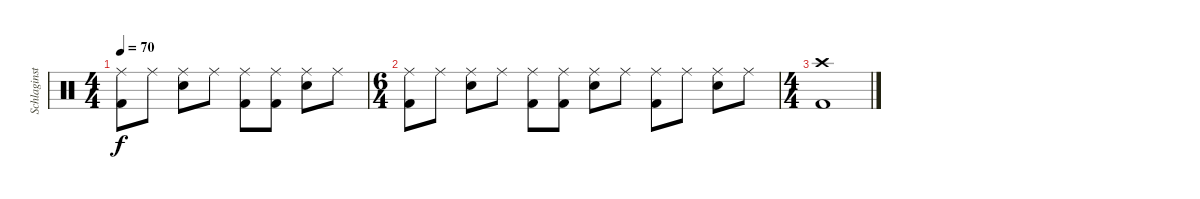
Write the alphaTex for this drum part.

\track ("Schlaginstrumente - Auswahl" "Schlaginst") {instrument percussion}
\staff {score}
\articulation defaults
\ts (4 4)
\tempo 70
\clef neutral
\ks c
("Kick (hit) 2" "Ride (middle)").8{dy f} "Ride (middle)".8 ("Snare (hit) 2" "Ride (middle)").8 "Ride (middle)".8 ("Kick (hit) 2" "Ride (middle)").8 ("Kick (hit) 2" "Ride (middle)").8 ("Snare (hit) 2" "Ride (middle)").8 "Ride (middle)".8 |
\ts (6 4)
("Kick (hit) 2" "Ride (middle)").8 "Ride (middle)".8 ("Snare (hit) 2" "Ride (middle)").8 "Ride (middle)".8 ("Kick (hit) 2" "Ride (middle)").8 ("Kick (hit) 2" "Ride (middle)").8 ("Snare (hit) 2" "Ride (middle)").8 "Ride (middle)".8 ("Kick (hit) 2" "Ride (middle)").8 "Ride (middle)".8 ("Snare (hit) 2" "Ride (middle)").8 "Ride (middle)".8 |
\ts (4 4)
("Crash high (hit)" "Kick (hit) 2").1
